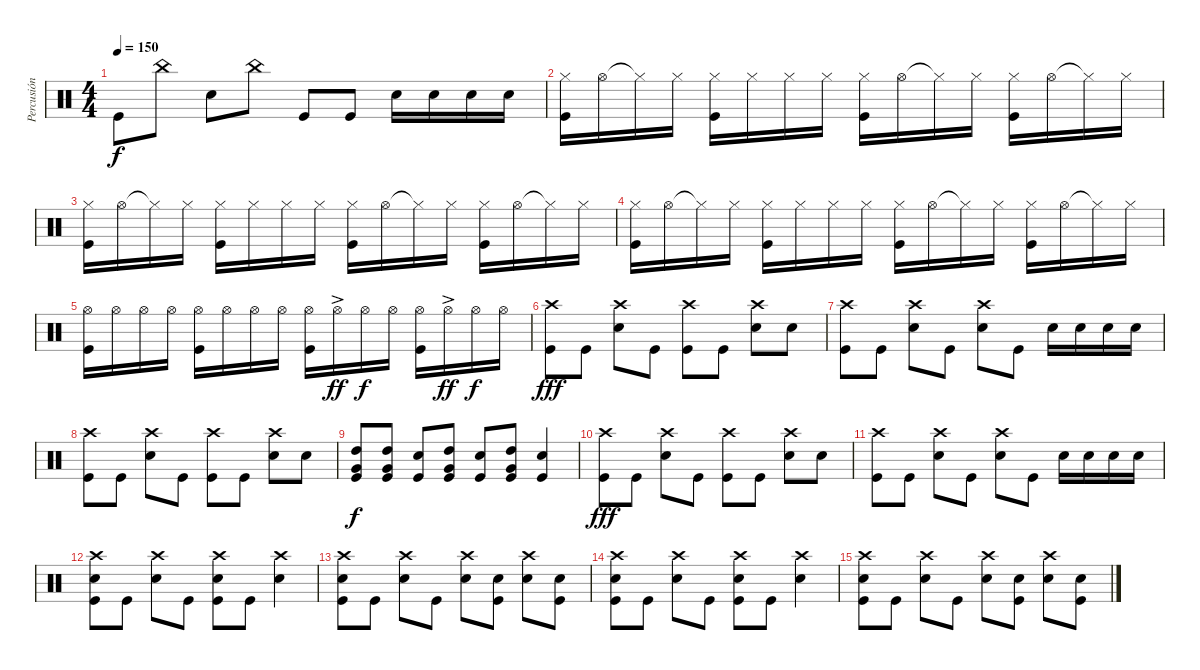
\track ("Percusión" "Percusión") {instrument percussion}
\staff {score}
\articulation defaults
\ts (4 4)
\tempo 150
\clef neutral
\ks c "Kick (hit)".8{dy f} "China (hit)".8 "Snare (hit) 2".8 "China (hit)".8 "Kick (hit)".8 "Kick (hit)".8 "Snare (hit) 2".16 "Snare (hit) 2".16 "Snare (hit) 2".16 "Snare (hit) 2".16
|
("Kick (hit)" "Hi-Hat (closed)").16 "Hi-Hat (open)".16 "Hi-Hat (closed)"{t}.16 "Hi-Hat (closed)".16 ("Hi-Hat (closed)" "Kick (hit)").16 "Hi-Hat (closed)".16 "Hi-Hat (closed)".16 "Hi-Hat (closed)".16 ("Hi-Hat (closed)" "Kick (hit)").16 "Hi-Hat (open)".16 "Hi-Hat (closed)"{t}.16 "Hi-Hat (closed)".16 ("Kick (hit)" "Hi-Hat (closed)").16 "Hi-Hat (open)".16 "Hi-Hat (closed)"{t}.16 "Hi-Hat (closed)".16 |
("Kick (hit)" "Hi-Hat (closed)").16 "Hi-Hat (open)".16 "Hi-Hat (closed)"{t}.16 "Hi-Hat (closed)".16 ("Hi-Hat (closed)" "Kick (hit)").16 "Hi-Hat (closed)".16 "Hi-Hat (closed)".16 "Hi-Hat (closed)".16 ("Hi-Hat (closed)" "Kick (hit)").16 "Hi-Hat (open)".16 "Hi-Hat (closed)"{t}.16 "Hi-Hat (closed)".16 ("Kick (hit)" "Hi-Hat (closed)").16 "Hi-Hat (open)".16 "Hi-Hat (closed)"{t}.16 "Hi-Hat (closed)".16 |
("Kick (hit)" "Hi-Hat (closed)").16 "Hi-Hat (open)".16 "Hi-Hat (closed)"{t}.16 "Hi-Hat (closed)".16 ("Hi-Hat (closed)" "Kick (hit)").16 "Hi-Hat (closed)".16 "Hi-Hat (closed)".16 "Hi-Hat (closed)".16 ("Hi-Hat (closed)" "Kick (hit)").16 "Hi-Hat (open)".16 "Hi-Hat (closed)"{t}.16 "Hi-Hat (closed)".16 ("Kick (hit)" "Hi-Hat (closed)").16 "Hi-Hat (open)".16 "Hi-Hat (closed)"{t}.16 "Hi-Hat (closed)".16 |
("Kick (hit)" "Hi-Hat (open)").16 "Hi-Hat (open)".16 "Hi-Hat (open)".16 "Hi-Hat (open)".16 ("Hi-Hat (open)" "Kick (hit)").16 "Hi-Hat (open)".16 "Hi-Hat (open)".16 "Hi-Hat (open)".16 ("Hi-Hat (open)" "Kick (hit)").16 "Hi-Hat (open)"{ac}.16{dy ff} "Hi-Hat (open)".16{dy f} "Hi-Hat (open)".16 ("Hi-Hat (open)" "Kick (hit)").16 "Hi-Hat (open)"{ac}.16{dy ff} "Hi-Hat (open)".16{dy f} "Hi-Hat (open)".16 |
("Crash high (hit)" "Kick (hit)").8{dy fff} "Kick (hit)".8 ("Crash high (hit)" "Snare (hit) 2").8 "Kick (hit)".8 ("Kick (hit)" "Crash high (hit)").8 "Kick (hit)".8 ("Snare (hit) 2" "Crash high (hit)").8 "Snare (hit) 2".8 |
("Crash high (hit)" "Kick (hit)").8 "Kick (hit)".8 ("Crash high (hit)" "Snare (hit) 2").8 "Kick (hit)".8 ("Crash high (hit)" "Snare (hit) 2").8 "Kick (hit)".8 "Snare (hit) 2".16 "Snare (hit) 2".16 "Snare (hit) 2".16 "Snare (hit) 2".16 |
("Crash high (hit)" "Kick (hit)").8 "Kick (hit)".8 ("Crash high (hit)" "Snare (hit) 2").8 "Kick (hit)".8 ("Kick (hit)" "Crash high (hit)").8 "Kick (hit)".8 ("Snare (hit) 2" "Crash high (hit)").8 "Snare (hit) 2".8 |
("Kick (hit)" "Very Low Tom (hit)" "High Tom (hit)").8{dy f} ("Kick (hit)" "High Tom (hit)" "Very Low Tom (hit)").8 ("Kick (hit)" "Snare (hit) 2").8 ("Kick (hit)" "Very Low Tom (hit)" "High Tom (hit)").8 ("Kick (hit)" "Snare (hit) 2").8 ("Kick (hit)" "Very Low Tom (hit)" "High Tom (hit)").8 ("Kick (hit)" "Snare (hit) 2").4 |
("Crash high (hit)" "Kick (hit)").8{dy fff} "Kick (hit)".8 ("Crash high (hit)" "Snare (hit) 2").8 "Kick (hit)".8 ("Kick (hit)" "Crash high (hit)").8 "Kick (hit)".8 ("Snare (hit) 2" "Crash high (hit)").8 "Snare (hit) 2".8 |
("Crash high (hit)" "Kick (hit)").8 "Kick (hit)".8 ("Crash high (hit)" "Snare (hit) 2").8 "Kick (hit)".8 ("Crash high (hit)" "Snare (hit) 2").8 "Kick (hit)".8 "Snare (hit) 2".16 "Snare (hit) 2".16 "Snare (hit) 2".16 "Snare (hit) 2".16 |
("Crash high (hit)" "Kick (hit)" "Snare (hit) 2").8 "Kick (hit)".8 ("Crash high (hit)" "Snare (hit) 2").8 "Kick (hit)".8 ("Kick (hit)" "Crash high (hit)" "Snare (hit) 2").8 "Kick (hit)".8 ("Snare (hit) 2" "Crash high (hit)").4 |
("Crash high (hit)" "Kick (hit)" "Snare (hit) 2").8 "Kick (hit)".8 ("Crash high (hit)" "Snare (hit) 2").8 "Kick (hit)".8 ("Crash high (hit)" "Snare (hit) 2").8 ("Kick (hit)" "Snare (hit) 2").8 ("Crash high (hit)" "Snare (hit) 2").8 ("Kick (hit)" "Snare (hit) 2").8 |
("Crash high (hit)" "Kick (hit)" "Snare (hit) 2").8 "Kick (hit)".8 ("Crash high (hit)" "Snare (hit) 2").8 "Kick (hit)".8 ("Kick (hit)" "Crash high (hit)" "Snare (hit) 2").8 "Kick (hit)".8 ("Snare (hit) 2" "Crash high (hit)").4 |
("Crash high (hit)" "Kick (hit)" "Snare (hit) 2").8 "Kick (hit)".8 ("Crash high (hit)" "Snare (hit) 2").8 "Kick (hit)".8 ("Crash high (hit)" "Snare (hit) 2").8 ("Kick (hit)" "Snare (hit) 2").8 ("Crash high (hit)" "Snare (hit) 2").8 ("Kick (hit)" "Snare (hit) 2").8
